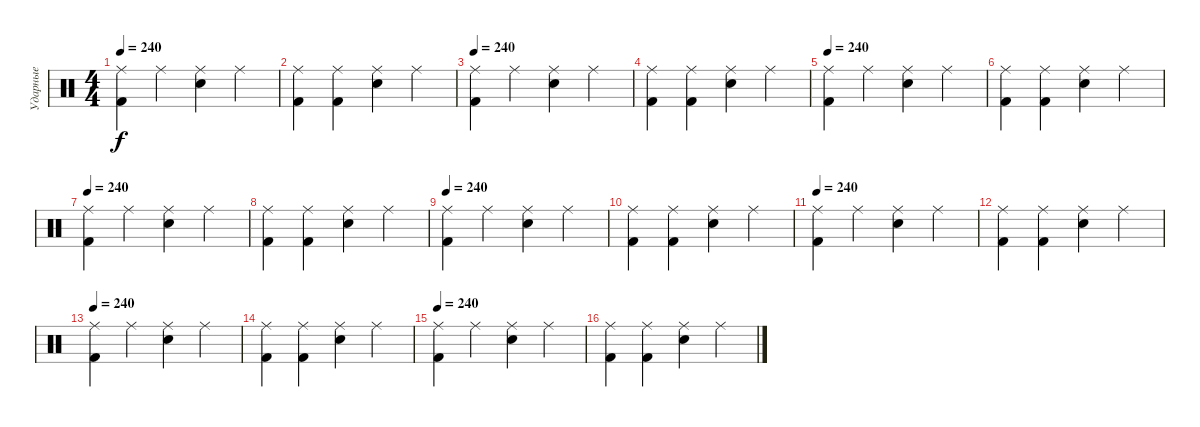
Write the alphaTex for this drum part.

\track ("Ударные" "Ударные") {instrument percussion}
\staff {score}
\articulation defaults
\ts (4 4)
\tempo 240
\clef neutral
\ks c
("Ride (middle)" "Kick (hit) 2").4{dy f} "Ride (middle)".4 ("Ride (middle)" "Electric Snare (hit)").4 "Ride (middle)".4 |
("Ride (middle)" "Kick (hit) 2").4 ("Ride (middle)" "Kick (hit) 2").4 ("Ride (middle)" "Electric Snare (hit)").4 "Ride (middle)".4 |
\tempo 240
("Ride (middle)" "Kick (hit) 2").4 "Ride (middle)".4 ("Ride (middle)" "Electric Snare (hit)").4 "Ride (middle)".4 |
("Ride (middle)" "Kick (hit) 2").4 ("Ride (middle)" "Kick (hit) 2").4 ("Ride (middle)" "Electric Snare (hit)").4 "Ride (middle)".4 |
\tempo 240
("Ride (middle)" "Kick (hit) 2").4 "Ride (middle)".4 ("Ride (middle)" "Electric Snare (hit)").4 "Ride (middle)".4 |
("Ride (middle)" "Kick (hit) 2").4 ("Ride (middle)" "Kick (hit) 2").4 ("Ride (middle)" "Electric Snare (hit)").4 "Ride (middle)".4 |
\tempo 240
("Ride (middle)" "Kick (hit) 2").4 "Ride (middle)".4 ("Ride (middle)" "Electric Snare (hit)").4 "Ride (middle)".4 |
("Ride (middle)" "Kick (hit) 2").4 ("Ride (middle)" "Kick (hit) 2").4 ("Ride (middle)" "Electric Snare (hit)").4 "Ride (middle)".4 |
\tempo 240
("Ride (middle)" "Kick (hit) 2").4 "Ride (middle)".4 ("Ride (middle)" "Electric Snare (hit)").4 "Ride (middle)".4 |
("Ride (middle)" "Kick (hit) 2").4 ("Ride (middle)" "Kick (hit) 2").4 ("Ride (middle)" "Electric Snare (hit)").4 "Ride (middle)".4 |
\tempo 240
("Ride (middle)" "Kick (hit) 2").4 "Ride (middle)".4 ("Ride (middle)" "Electric Snare (hit)").4 "Ride (middle)".4 |
("Ride (middle)" "Kick (hit) 2").4 ("Ride (middle)" "Kick (hit) 2").4 ("Ride (middle)" "Electric Snare (hit)").4 "Ride (middle)".4 |
\tempo 240
("Ride (middle)" "Kick (hit) 2").4 "Ride (middle)".4 ("Ride (middle)" "Electric Snare (hit)").4 "Ride (middle)".4 |
("Ride (middle)" "Kick (hit) 2").4 ("Ride (middle)" "Kick (hit) 2").4 ("Ride (middle)" "Electric Snare (hit)").4 "Ride (middle)".4 |
\tempo 240
("Ride (middle)" "Kick (hit) 2").4 "Ride (middle)".4 ("Ride (middle)" "Electric Snare (hit)").4 "Ride (middle)".4 |
("Ride (middle)" "Kick (hit) 2").4 ("Ride (middle)" "Kick (hit) 2").4 ("Ride (middle)" "Electric Snare (hit)").4 "Ride (middle)".4
